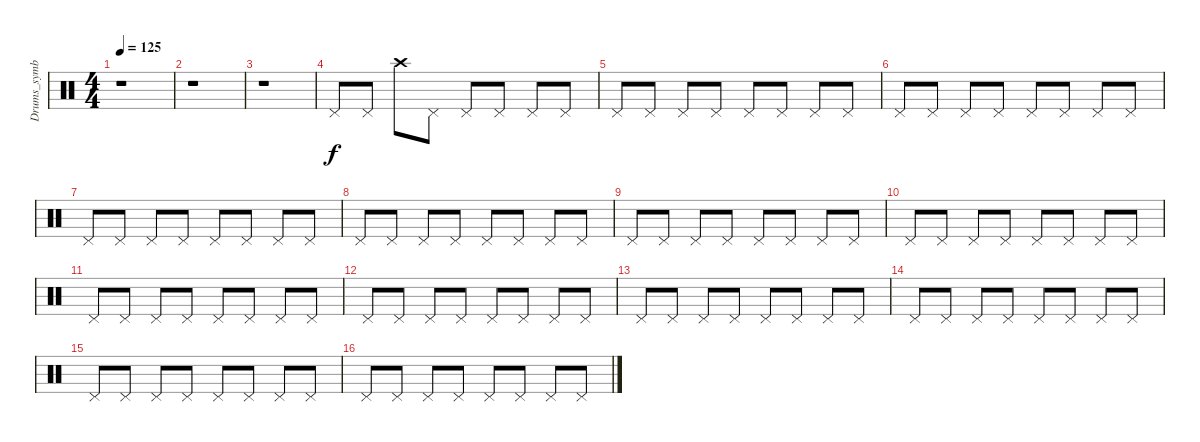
\track ("Drums_symbal" "Drums_symb") {instrument percussion}
\staff {score}
\articulation defaults
\ts (4 4)
\tempo 125
\clef neutral
\ks c
r.1{dy f} |
r.1 |
r.1 |
"Pedal Hi-Hat (hit)".8 "Pedal Hi-Hat (hit)".8 "Crash high (hit)".8 "Pedal Hi-Hat (hit)".8 "Pedal Hi-Hat (hit)".8 "Pedal Hi-Hat (hit)".8 "Pedal Hi-Hat (hit)".8 "Pedal Hi-Hat (hit)".8 |
"Pedal Hi-Hat (hit)".8 "Pedal Hi-Hat (hit)".8 "Pedal Hi-Hat (hit)".8 "Pedal Hi-Hat (hit)".8 "Pedal Hi-Hat (hit)".8 "Pedal Hi-Hat (hit)".8 "Pedal Hi-Hat (hit)".8 "Pedal Hi-Hat (hit)".8 |
"Pedal Hi-Hat (hit)".8 "Pedal Hi-Hat (hit)".8 "Pedal Hi-Hat (hit)".8 "Pedal Hi-Hat (hit)".8 "Pedal Hi-Hat (hit)".8 "Pedal Hi-Hat (hit)".8 "Pedal Hi-Hat (hit)".8 "Pedal Hi-Hat (hit)".8 |
"Pedal Hi-Hat (hit)".8 "Pedal Hi-Hat (hit)".8 "Pedal Hi-Hat (hit)".8 "Pedal Hi-Hat (hit)".8 "Pedal Hi-Hat (hit)".8 "Pedal Hi-Hat (hit)".8 "Pedal Hi-Hat (hit)".8 "Pedal Hi-Hat (hit)".8 |
"Pedal Hi-Hat (hit)".8 "Pedal Hi-Hat (hit)".8 "Pedal Hi-Hat (hit)".8 "Pedal Hi-Hat (hit)".8 "Pedal Hi-Hat (hit)".8 "Pedal Hi-Hat (hit)".8 "Pedal Hi-Hat (hit)".8 "Pedal Hi-Hat (hit)".8 |
"Pedal Hi-Hat (hit)".8 "Pedal Hi-Hat (hit)".8 "Pedal Hi-Hat (hit)".8 "Pedal Hi-Hat (hit)".8 "Pedal Hi-Hat (hit)".8 "Pedal Hi-Hat (hit)".8 "Pedal Hi-Hat (hit)".8 "Pedal Hi-Hat (hit)".8 |
"Pedal Hi-Hat (hit)".8 "Pedal Hi-Hat (hit)".8 "Pedal Hi-Hat (hit)".8 "Pedal Hi-Hat (hit)".8 "Pedal Hi-Hat (hit)".8 "Pedal Hi-Hat (hit)".8 "Pedal Hi-Hat (hit)".8 "Pedal Hi-Hat (hit)".8 |
"Pedal Hi-Hat (hit)".8 "Pedal Hi-Hat (hit)".8 "Pedal Hi-Hat (hit)".8 "Pedal Hi-Hat (hit)".8 "Pedal Hi-Hat (hit)".8 "Pedal Hi-Hat (hit)".8 "Pedal Hi-Hat (hit)".8 "Pedal Hi-Hat (hit)".8 |
"Pedal Hi-Hat (hit)".8 "Pedal Hi-Hat (hit)".8 "Pedal Hi-Hat (hit)".8 "Pedal Hi-Hat (hit)".8 "Pedal Hi-Hat (hit)".8 "Pedal Hi-Hat (hit)".8 "Pedal Hi-Hat (hit)".8 "Pedal Hi-Hat (hit)".8 |
"Pedal Hi-Hat (hit)".8 "Pedal Hi-Hat (hit)".8 "Pedal Hi-Hat (hit)".8 "Pedal Hi-Hat (hit)".8 "Pedal Hi-Hat (hit)".8 "Pedal Hi-Hat (hit)".8 "Pedal Hi-Hat (hit)".8 "Pedal Hi-Hat (hit)".8 |
"Pedal Hi-Hat (hit)".8 "Pedal Hi-Hat (hit)".8 "Pedal Hi-Hat (hit)".8 "Pedal Hi-Hat (hit)".8 "Pedal Hi-Hat (hit)".8 "Pedal Hi-Hat (hit)".8 "Pedal Hi-Hat (hit)".8 "Pedal Hi-Hat (hit)".8 |
"Pedal Hi-Hat (hit)".8 "Pedal Hi-Hat (hit)".8 "Pedal Hi-Hat (hit)".8 "Pedal Hi-Hat (hit)".8 "Pedal Hi-Hat (hit)".8 "Pedal Hi-Hat (hit)".8 "Pedal Hi-Hat (hit)".8 "Pedal Hi-Hat (hit)".8 |
"Pedal Hi-Hat (hit)".8 "Pedal Hi-Hat (hit)".8 "Pedal Hi-Hat (hit)".8 "Pedal Hi-Hat (hit)".8 "Pedal Hi-Hat (hit)".8 "Pedal Hi-Hat (hit)".8 "Pedal Hi-Hat (hit)".8 "Pedal Hi-Hat (hit)".8
